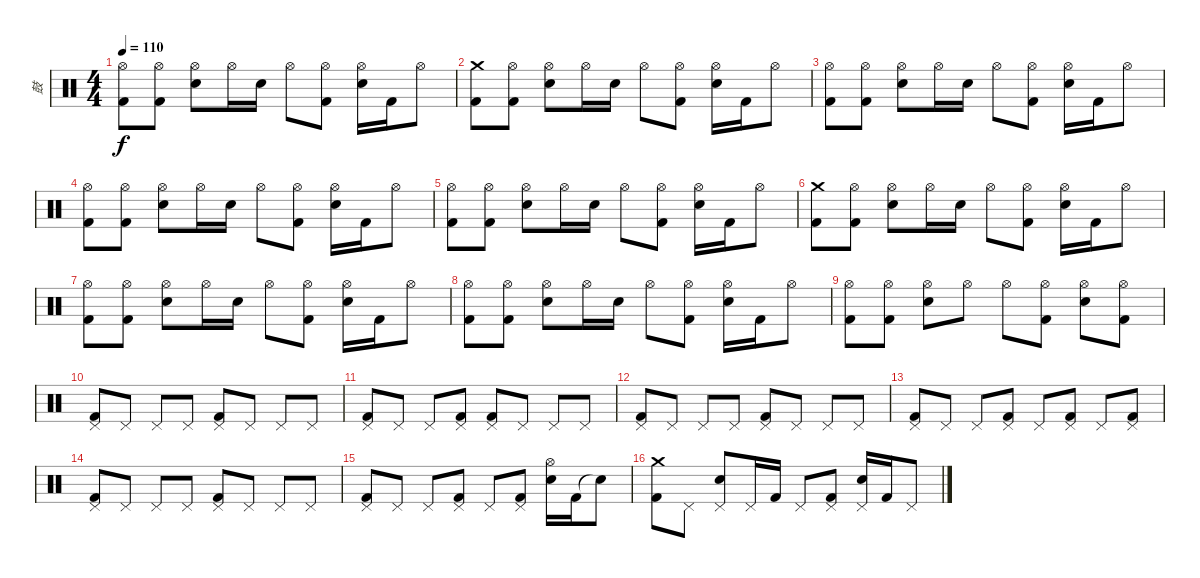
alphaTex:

\track ("鼓" "鼓") {instrument percussion}
\staff {score}
\articulation defaults
\ts (4 4)
\tempo 110
\clef neutral
\ks c
("Hi-Hat (open)" "Kick (hit) 2").8{dy f} ("Hi-Hat (open)" "Kick (hit) 2").8 ("Hi-Hat (open)" "Electric Snare (hit)").8 "Hi-Hat (open)".16 "Electric Snare (hit)".16 "Hi-Hat (open)".8 ("Hi-Hat (open)" "Kick (hit) 2").8 ("Hi-Hat (open)" "Electric Snare (hit)").16 "Kick (hit) 2".16 "Hi-Hat (open)".8 |
("Crash medium (hit)" "Kick (hit) 2").8 ("Hi-Hat (open)" "Kick (hit) 2").8 ("Hi-Hat (open)" "Electric Snare (hit)").8 "Hi-Hat (open)".16 "Electric Snare (hit)".16 "Hi-Hat (open)".8 ("Hi-Hat (open)" "Kick (hit) 2").8 ("Hi-Hat (open)" "Electric Snare (hit)").16 "Kick (hit) 2".16 "Hi-Hat (open)".8 |
("Hi-Hat (open)" "Kick (hit) 2").8 ("Hi-Hat (open)" "Kick (hit) 2").8 ("Hi-Hat (open)" "Electric Snare (hit)").8 "Hi-Hat (open)".16 "Electric Snare (hit)".16 "Hi-Hat (open)".8 ("Hi-Hat (open)" "Kick (hit) 2").8 ("Hi-Hat (open)" "Electric Snare (hit)").16 "Kick (hit) 2".16 "Hi-Hat (open)".8 |
("Hi-Hat (open)" "Kick (hit) 2").8 ("Hi-Hat (open)" "Kick (hit) 2").8 ("Hi-Hat (open)" "Electric Snare (hit)").8 "Hi-Hat (open)".16 "Electric Snare (hit)".16 "Hi-Hat (open)".8 ("Hi-Hat (open)" "Kick (hit) 2").8 ("Hi-Hat (open)" "Electric Snare (hit)").16 "Kick (hit) 2".16 "Hi-Hat (open)".8 |
("Hi-Hat (open)" "Kick (hit) 2").8 ("Hi-Hat (open)" "Kick (hit) 2").8 ("Hi-Hat (open)" "Electric Snare (hit)").8 "Hi-Hat (open)".16 "Electric Snare (hit)".16 "Hi-Hat (open)".8 ("Hi-Hat (open)" "Kick (hit) 2").8 ("Hi-Hat (open)" "Electric Snare (hit)").16 "Kick (hit) 2".16 "Hi-Hat (open)".8 |
("Crash medium (hit)" "Kick (hit) 2").8 ("Hi-Hat (open)" "Kick (hit) 2").8 ("Hi-Hat (open)" "Electric Snare (hit)").8 "Hi-Hat (open)".16 "Electric Snare (hit)".16 "Hi-Hat (open)".8 ("Hi-Hat (open)" "Kick (hit) 2").8 ("Hi-Hat (open)" "Electric Snare (hit)").16 "Kick (hit) 2".16 "Hi-Hat (open)".8 |
("Hi-Hat (open)" "Kick (hit) 2").8 ("Hi-Hat (open)" "Kick (hit) 2").8 ("Hi-Hat (open)" "Electric Snare (hit)").8 "Hi-Hat (open)".16 "Electric Snare (hit)".16 "Hi-Hat (open)".8 ("Hi-Hat (open)" "Kick (hit) 2").8 ("Hi-Hat (open)" "Electric Snare (hit)").16 "Kick (hit) 2".16 "Hi-Hat (open)".8 |
("Hi-Hat (open)" "Kick (hit) 2").8 ("Hi-Hat (open)" "Kick (hit) 2").8 ("Hi-Hat (open)" "Electric Snare (hit)").8 "Hi-Hat (open)".16 "Electric Snare (hit)".16 "Hi-Hat (open)".8 ("Hi-Hat (open)" "Kick (hit) 2").8 ("Hi-Hat (open)" "Electric Snare (hit)").16 "Kick (hit) 2".16 "Hi-Hat (open)".8 |
("Hi-Hat (open)" "Kick (hit) 2").8 ("Hi-Hat (open)" "Kick (hit) 2").8 ("Hi-Hat (open)" "Electric Snare (hit)").8 "Hi-Hat (open)".8 "Hi-Hat (open)".8 ("Hi-Hat (open)" "Kick (hit) 2").8 ("Hi-Hat (open)" "Electric Snare (hit)").8 ("Hi-Hat (open)" "Kick (hit) 2").8 |
("Pedal Hi-Hat (hit)" "Kick (hit) 2").8 "Pedal Hi-Hat (hit)".8 "Pedal Hi-Hat (hit)".8 "Pedal Hi-Hat (hit)".8 ("Pedal Hi-Hat (hit)" "Kick (hit) 2").8 "Pedal Hi-Hat (hit)".8 "Pedal Hi-Hat (hit)".8 "Pedal Hi-Hat (hit)".8 |
("Pedal Hi-Hat (hit)" "Kick (hit) 2").8 "Pedal Hi-Hat (hit)".8 "Pedal Hi-Hat (hit)".8 ("Pedal Hi-Hat (hit)" "Kick (hit) 2").8 ("Pedal Hi-Hat (hit)" "Kick (hit) 2").8 "Pedal Hi-Hat (hit)".8 "Pedal Hi-Hat (hit)".8 "Pedal Hi-Hat (hit)".8 |
("Pedal Hi-Hat (hit)" "Kick (hit) 2").8 "Pedal Hi-Hat (hit)".8 "Pedal Hi-Hat (hit)".8 "Pedal Hi-Hat (hit)".8 ("Pedal Hi-Hat (hit)" "Kick (hit) 2").8 "Pedal Hi-Hat (hit)".8 "Pedal Hi-Hat (hit)".8 "Pedal Hi-Hat (hit)".8 |
("Pedal Hi-Hat (hit)" "Kick (hit) 2").8 "Pedal Hi-Hat (hit)".8 "Pedal Hi-Hat (hit)".8 ("Pedal Hi-Hat (hit)" "Kick (hit) 2").8 "Pedal Hi-Hat (hit)".8 ("Pedal Hi-Hat (hit)" "Kick (hit) 2").8 "Pedal Hi-Hat (hit)".8 ("Pedal Hi-Hat (hit)" "Kick (hit) 2").8 |
("Pedal Hi-Hat (hit)" "Kick (hit) 2").8 "Pedal Hi-Hat (hit)".8 "Pedal Hi-Hat (hit)".8 "Pedal Hi-Hat (hit)".8 ("Pedal Hi-Hat (hit)" "Kick (hit) 2").8 "Pedal Hi-Hat (hit)".8 "Pedal Hi-Hat (hit)".8 "Pedal Hi-Hat (hit)".8 |
("Pedal Hi-Hat (hit)" "Kick (hit) 2").8 "Pedal Hi-Hat (hit)".8 "Pedal Hi-Hat (hit)".8 ("Pedal Hi-Hat (hit)" "Kick (hit) 2").8 "Pedal Hi-Hat (hit)".8 ("Pedal Hi-Hat (hit)" "Kick (hit) 2").8 ("Hi-Hat (open)" "Electric Snare (hit)").16 "Kick (hit) 2".16 "Snare (hit)"{t}.8 |
("Crash medium (hit)" "Kick (hit) 2").8 "Pedal Hi-Hat (hit)".8 ("Pedal Hi-Hat (hit)" "Electric Snare (hit)").8 "Pedal Hi-Hat (hit)".16 "Kick (hit) 2".16 "Pedal Hi-Hat (hit)".8 ("Pedal Hi-Hat (hit)" "Kick (hit) 2").8 ("Pedal Hi-Hat (hit)" "Electric Snare (hit)").16 "Kick (hit) 2".16 "Pedal Hi-Hat (hit)".8
